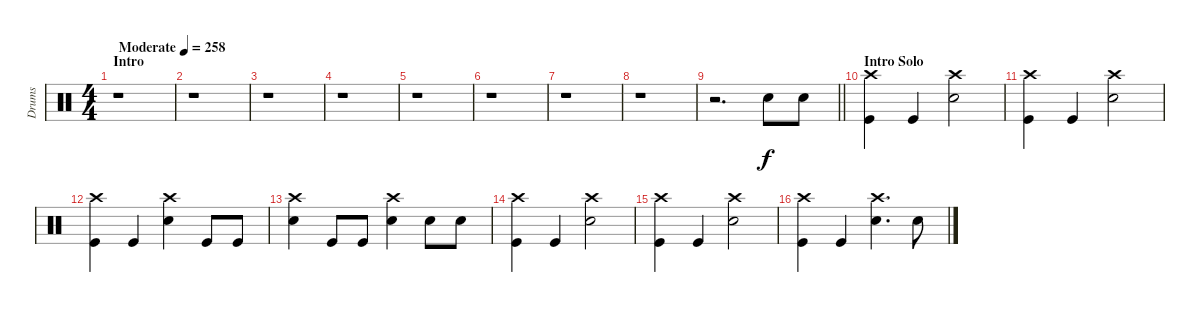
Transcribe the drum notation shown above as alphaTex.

\track ("Drums" "Drums") {instrument percussion}
\staff {score}
\articulation defaults
\ts (4 4)
\section ("" "Intro")
\tempo (258 "Moderate")
\clef neutral
\ks c
r.1{dy f} |
r.1 |
r.1 |
r.1 |
r.1 |
r.1 |
r.1 |
r.1 |
\barLineRight lightlight
r.2{d} "Electric Snare (hit)".8 "Electric Snare (hit)".8 |
\section ("" "Intro Solo")
("Crash high (hit)" "Kick (hit)").4 "Kick (hit)".4 ("Crash high (hit)" "Electric Snare (hit)").2 |
("Crash high (hit)" "Kick (hit)").4 "Kick (hit)".4 ("Crash high (hit)" "Electric Snare (hit)").2 |
("Crash high (hit)" "Kick (hit)").4 "Kick (hit)".4 ("Crash high (hit)" "Electric Snare (hit)").4 "Kick (hit)".8 "Kick (hit)".8 |
("Crash high (hit)" "Electric Snare (hit)").4 "Kick (hit)".8 "Kick (hit)".8 ("Crash high (hit)" "Electric Snare (hit)").4 "Electric Snare (hit)".8 "Electric Snare (hit)".8 |
("Crash high (hit)" "Kick (hit)").4 "Kick (hit)".4 ("Crash high (hit)" "Electric Snare (hit)").2 |
("Crash high (hit)" "Kick (hit)").4 "Kick (hit)".4 ("Crash high (hit)" "Electric Snare (hit)").2 |
("Crash high (hit)" "Kick (hit)").4 "Kick (hit)".4 ("Crash high (hit)" "Electric Snare (hit)").4{d} "Electric Snare (hit)".8
